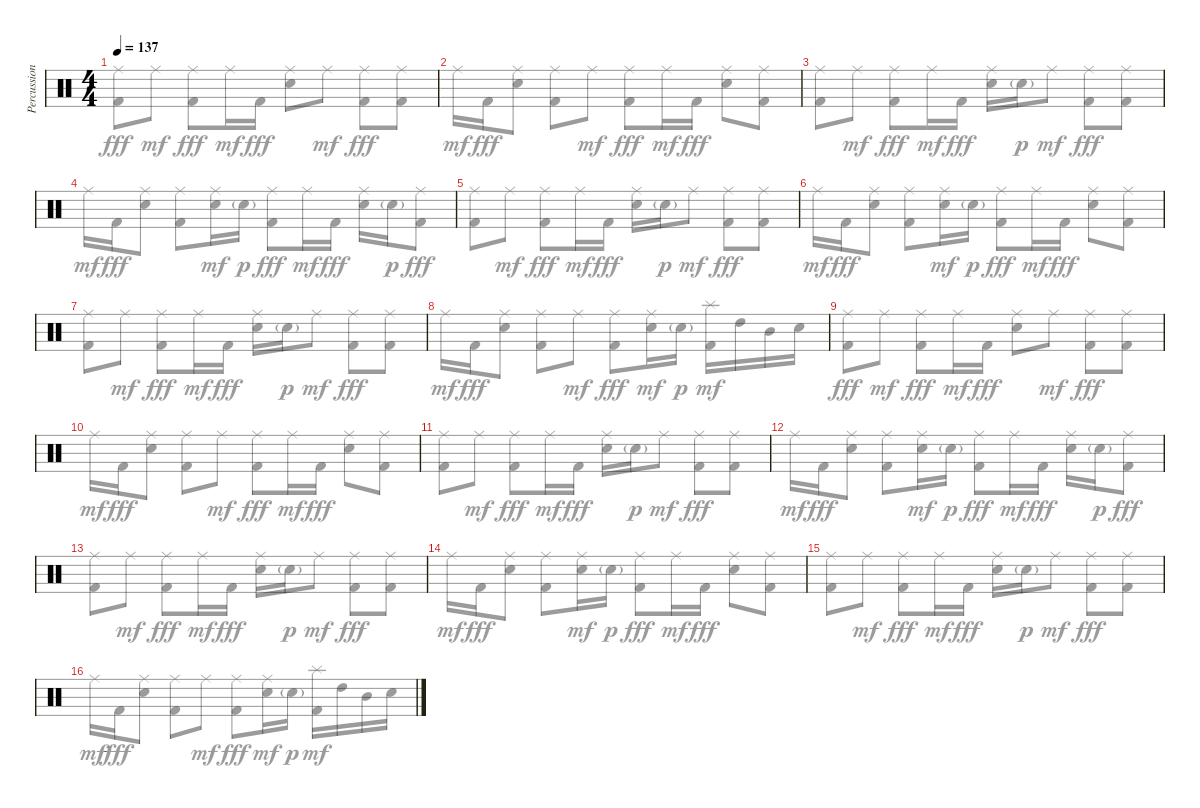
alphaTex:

\track ("Percussion" "Percussion") {instrument percussion}
\staff {score}
\articulation defaults
\voice
\ts (4 4)
\tempo 137
\clef neutral
\ks c
|
|
|
|
|
|
|
|
|
|
|
|
|
|
|
\voice
\clef neutral
\ks c
("Ride (middle)" "Kick (hit) 2").8{dy fff} "Ride (middle)".8{dy mf} ("Ride (middle)" "Kick (hit) 2").8{dy fff} "Ride (middle)".16{dy mf} "Kick (hit) 2".16{dy fff} ("Ride (middle)" "Electric Snare (hit)").8 "Ride (middle)".8{dy mf} ("Ride (middle)" "Kick (hit) 2").8{dy fff} ("Ride (middle)" "Kick (hit) 2").8 |
"Ride (middle)".16{dy mf} "Kick (hit) 2".16{dy fff} ("Ride (middle)" "Electric Snare (hit)").8 ("Ride (middle)" "Kick (hit) 2").8 "Ride (middle)".8{dy mf} ("Ride (middle)" "Kick (hit) 2").8{dy fff} "Ride (middle)".16{dy mf} "Kick (hit) 2".16{dy fff} ("Ride (middle)" "Electric Snare (hit)").8 ("Ride (middle)" "Kick (hit) 2").8 |
("Ride (middle)" "Kick (hit) 2").8 "Ride (middle)".8{dy mf} ("Ride (middle)" "Kick (hit) 2").8{dy fff} "Ride (middle)".16{dy mf} "Kick (hit) 2".16{dy fff} ("Ride (middle)" "Electric Snare (hit)").16 "Electric Snare (hit)"{g}.16{dy p} "Ride (middle)".8{dy mf} ("Ride (middle)" "Kick (hit) 2").8{dy fff} ("Ride (middle)" "Kick (hit) 2").8 |
"Ride (middle)".16{dy mf} "Kick (hit) 2".16{dy fff} ("Ride (middle)" "Electric Snare (hit)").8 ("Ride (middle)" "Kick (hit) 2").8 ("Ride (middle)" "Electric Snare (hit)").16{dy mf} "Electric Snare (hit)"{g}.16{dy p} ("Ride (middle)" "Kick (hit) 2").8{dy fff} "Ride (middle)".16{dy mf} "Kick (hit) 2".16{dy fff} ("Ride (middle)" "Electric Snare (hit)").16 "Electric Snare (hit)"{g}.16{dy p} ("Ride (middle)" "Kick (hit) 2").8{dy fff} |
("Ride (middle)" "Kick (hit) 2").8 "Ride (middle)".8{dy mf} ("Ride (middle)" "Kick (hit) 2").8{dy fff} "Ride (middle)".16{dy mf} "Kick (hit) 2".16{dy fff} ("Ride (middle)" "Electric Snare (hit)").16 "Electric Snare (hit)"{g}.16{dy p} "Ride (middle)".8{dy mf} ("Ride (middle)" "Kick (hit) 2").8{dy fff} ("Ride (middle)" "Kick (hit) 2").8 |
"Ride (middle)".16{dy mf} "Kick (hit) 2".16{dy fff} ("Ride (middle)" "Electric Snare (hit)").8 ("Ride (middle)" "Kick (hit) 2").8 ("Ride (middle)" "Electric Snare (hit)").16{dy mf} "Electric Snare (hit)"{g}.16{dy p} ("Ride (middle)" "Kick (hit) 2").8{dy fff} "Ride (middle)".16{dy mf} "Kick (hit) 2".16{dy fff} ("Ride (middle)" "Electric Snare (hit)").8 ("Ride (middle)" "Kick (hit) 2").8 |
("Ride (middle)" "Kick (hit) 2").8 "Ride (middle)".8{dy mf} ("Ride (middle)" "Kick (hit) 2").8{dy fff} "Ride (middle)".16{dy mf} "Kick (hit) 2".16{dy fff} ("Ride (middle)" "Electric Snare (hit)").16 "Electric Snare (hit)"{g}.16{dy p} "Ride (middle)".8{dy mf} ("Ride (middle)" "Kick (hit) 2").8{dy fff} ("Ride (middle)" "Kick (hit) 2").8 |
"Ride (middle)".16{dy mf} "Kick (hit) 2".16{dy fff} ("Ride (middle)" "Electric Snare (hit)").8 ("Ride (middle)" "Kick (hit) 2").8 "Ride (middle)".8{dy mf} ("Ride (middle)" "Kick (hit) 2").8{dy fff} ("Ride (middle)" "Electric Snare (hit)").16{dy mf} "Electric Snare (hit)"{g}.16{dy p} ("Splash (hit)" "Kick (hit) 2").16{dy mf} "High Tom (hit)".16 "Mid Tom (hit)".16 "Electric Snare (hit)".16 |
("Ride (middle)" "Kick (hit) 2").8{dy fff} "Ride (middle)".8{dy mf} ("Ride (middle)" "Kick (hit) 2").8{dy fff} "Ride (middle)".16{dy mf} "Kick (hit) 2".16{dy fff} ("Ride (middle)" "Electric Snare (hit)").8 "Ride (middle)".8{dy mf} ("Ride (middle)" "Kick (hit) 2").8{dy fff} ("Ride (middle)" "Kick (hit) 2").8 |
"Ride (middle)".16{dy mf} "Kick (hit) 2".16{dy fff} ("Ride (middle)" "Electric Snare (hit)").8 ("Ride (middle)" "Kick (hit) 2").8 "Ride (middle)".8{dy mf} ("Ride (middle)" "Kick (hit) 2").8{dy fff} "Ride (middle)".16{dy mf} "Kick (hit) 2".16{dy fff} ("Ride (middle)" "Electric Snare (hit)").8 ("Ride (middle)" "Kick (hit) 2").8 |
("Ride (middle)" "Kick (hit) 2").8 "Ride (middle)".8{dy mf} ("Ride (middle)" "Kick (hit) 2").8{dy fff} "Ride (middle)".16{dy mf} "Kick (hit) 2".16{dy fff} ("Ride (middle)" "Electric Snare (hit)").16 "Electric Snare (hit)"{g}.16{dy p} "Ride (middle)".8{dy mf} ("Ride (middle)" "Kick (hit) 2").8{dy fff} ("Ride (middle)" "Kick (hit) 2").8 |
"Ride (middle)".16{dy mf} "Kick (hit) 2".16{dy fff} ("Ride (middle)" "Electric Snare (hit)").8 ("Ride (middle)" "Kick (hit) 2").8 ("Ride (middle)" "Electric Snare (hit)").16{dy mf} "Electric Snare (hit)"{g}.16{dy p} ("Ride (middle)" "Kick (hit) 2").8{dy fff} "Ride (middle)".16{dy mf} "Kick (hit) 2".16{dy fff} ("Ride (middle)" "Electric Snare (hit)").16 "Electric Snare (hit)"{g}.16{dy p} ("Ride (middle)" "Kick (hit) 2").8{dy fff} |
("Ride (middle)" "Kick (hit) 2").8 "Ride (middle)".8{dy mf} ("Ride (middle)" "Kick (hit) 2").8{dy fff} "Ride (middle)".16{dy mf} "Kick (hit) 2".16{dy fff} ("Ride (middle)" "Electric Snare (hit)").16 "Electric Snare (hit)"{g}.16{dy p} "Ride (middle)".8{dy mf} ("Ride (middle)" "Kick (hit) 2").8{dy fff} ("Ride (middle)" "Kick (hit) 2").8 |
"Ride (middle)".16{dy mf} "Kick (hit) 2".16{dy fff} ("Ride (middle)" "Electric Snare (hit)").8 ("Ride (middle)" "Kick (hit) 2").8 ("Ride (middle)" "Electric Snare (hit)").16{dy mf} "Electric Snare (hit)"{g}.16{dy p} ("Ride (middle)" "Kick (hit) 2").8{dy fff} "Ride (middle)".16{dy mf} "Kick (hit) 2".16{dy fff} ("Ride (middle)" "Electric Snare (hit)").8 ("Ride (middle)" "Kick (hit) 2").8 |
("Ride (middle)" "Kick (hit) 2").8 "Ride (middle)".8{dy mf} ("Ride (middle)" "Kick (hit) 2").8{dy fff} "Ride (middle)".16{dy mf} "Kick (hit) 2".16{dy fff} ("Ride (middle)" "Electric Snare (hit)").16 "Electric Snare (hit)"{g}.16{dy p} "Ride (middle)".8{dy mf} ("Ride (middle)" "Kick (hit) 2").8{dy fff} ("Ride (middle)" "Kick (hit) 2").8 |
"Ride (middle)".16{dy mf} "Kick (hit) 2".16{dy fff} ("Ride (middle)" "Electric Snare (hit)").8 ("Ride (middle)" "Kick (hit) 2").8 "Ride (middle)".8{dy mf} ("Ride (middle)" "Kick (hit) 2").8{dy fff} ("Ride (middle)" "Electric Snare (hit)").16{dy mf} "Electric Snare (hit)"{g}.16{dy p} ("Splash (hit)" "Kick (hit) 2").16{dy mf} "High Tom (hit)".16 "Mid Tom (hit)".16 "Electric Snare (hit)".16
